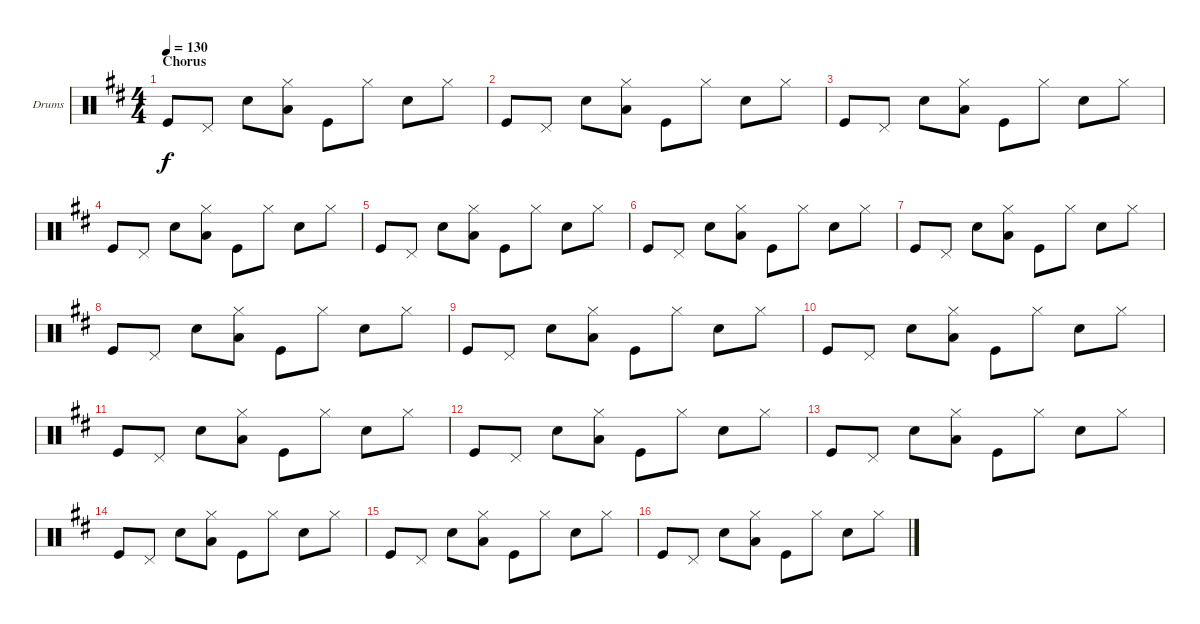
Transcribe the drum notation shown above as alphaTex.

\defaultSystemsLayout 4
\bracketExtendMode groupsimilarinstruments
\firstSystemTrackNameOrientation horizontal
\otherSystemsTrackNameOrientation horizontal
\track ("Drumkit" "Drums") {instrument percussion}
\staff {score}
\articulation defaults
\ts (4 4)
\section ("" "Chorus")
\tempo 130
\clef neutral
\scale
0.333333
\ks d "Kick (hit)".8{dy f} "Pedal Hi-Hat (hit)".8 "Snare (hit) 2".8
("Hi-Hat (closed)" "Low Tom (hit)").8 "Kick (hit)".8 "Hi-Hat (closed)".8 "Snare (hit) 2".8 "Hi-Hat (closed)".8 |
\scale
0.333333 "Kick (hit)".8 "Pedal Hi-Hat (hit)".8 "Snare (hit) 2".8 ("Hi-Hat (closed)" "Low Tom (hit)").8 "Kick (hit)".8 "Hi-Hat (closed)".8 "Snare (hit) 2".8 "Hi-Hat (closed)".8 |
\scale
0.333333 "Kick (hit)".8 "Pedal Hi-Hat (hit)".8 "Snare (hit) 2".8 ("Hi-Hat (closed)" "Low Tom (hit)").8 "Kick (hit)".8 "Hi-Hat (closed)".8 "Snare (hit) 2".8 "Hi-Hat (closed)".8 |
\scale
0.333333 "Kick (hit)".8 "Pedal Hi-Hat (hit)".8 "Snare (hit) 2".8 ("Hi-Hat (closed)" "Low Tom (hit)").8 "Kick (hit)".8 "Hi-Hat (closed)".8 "Snare (hit) 2".8 "Hi-Hat (closed)".8 |
\scale
0.333333 "Kick (hit)".8 "Pedal Hi-Hat (hit)".8 "Snare (hit) 2".8 ("Hi-Hat (closed)" "Low Tom (hit)").8 "Kick (hit)".8 "Hi-Hat (closed)".8 "Snare (hit) 2".8 "Hi-Hat (closed)".8 |
\scale
0.333333 "Kick (hit)".8 "Pedal Hi-Hat (hit)".8 "Snare (hit) 2".8 ("Hi-Hat (closed)" "Low Tom (hit)").8 "Kick (hit)".8 "Hi-Hat (closed)".8 "Snare (hit) 2".8 "Hi-Hat (closed)".8 |
\scale
0.333333 "Kick (hit)".8 "Pedal Hi-Hat (hit)".8 "Snare (hit) 2".8 ("Hi-Hat (closed)" "Low Tom (hit)").8 "Kick (hit)".8 "Hi-Hat (closed)".8 "Snare (hit) 2".8 "Hi-Hat (closed)".8 |
\scale
0.333333 "Kick (hit)".8 "Pedal Hi-Hat (hit)".8 "Snare (hit) 2".8 ("Hi-Hat (closed)" "Low Tom (hit)").8 "Kick (hit)".8 "Hi-Hat (closed)".8 "Snare (hit) 2".8 "Hi-Hat (closed)".8 |
\scale
0.333333 "Kick (hit)".8 "Pedal Hi-Hat (hit)".8 "Snare (hit) 2".8 ("Hi-Hat (closed)" "Low Tom (hit)").8 "Kick (hit)".8 "Hi-Hat (closed)".8 "Snare (hit) 2".8 "Hi-Hat (closed)".8 |
\scale
0.333333 "Kick (hit)".8 "Pedal Hi-Hat (hit)".8 "Snare (hit) 2".8 ("Hi-Hat (closed)" "Low Tom (hit)").8 "Kick (hit)".8 "Hi-Hat (closed)".8 "Snare (hit) 2".8 "Hi-Hat (closed)".8 |
\scale
0.333333 "Kick (hit)".8 "Pedal Hi-Hat (hit)".8 "Snare (hit) 2".8 ("Hi-Hat (closed)" "Low Tom (hit)").8 "Kick (hit)".8 "Hi-Hat (closed)".8 "Snare (hit) 2".8 "Hi-Hat (closed)".8 |
\scale
0.333333 "Kick (hit)".8 "Pedal Hi-Hat (hit)".8 "Snare (hit) 2".8 ("Hi-Hat (closed)" "Low Tom (hit)").8 "Kick (hit)".8 "Hi-Hat (closed)".8 "Snare (hit) 2".8 "Hi-Hat (closed)".8 |
\scale
0.333333 "Kick (hit)".8 "Pedal Hi-Hat (hit)".8 "Snare (hit) 2".8 ("Hi-Hat (closed)" "Low Tom (hit)").8 "Kick (hit)".8 "Hi-Hat (closed)".8 "Snare (hit) 2".8 "Hi-Hat (closed)".8 |
\scale
0.333333 "Kick (hit)".8 "Pedal Hi-Hat (hit)".8 "Snare (hit) 2".8 ("Hi-Hat (closed)" "Low Tom (hit)").8 "Kick (hit)".8 "Hi-Hat (closed)".8 "Snare (hit) 2".8 "Hi-Hat (closed)".8 |
\scale
0.333333 "Kick (hit)".8 "Pedal Hi-Hat (hit)".8 "Snare (hit) 2".8 ("Hi-Hat (closed)" "Low Tom (hit)").8 "Kick (hit)".8 "Hi-Hat (closed)".8 "Snare (hit) 2".8 "Hi-Hat (closed)".8 |
\scale
0.333333 "Kick (hit)".8 "Pedal Hi-Hat (hit)".8 "Snare (hit) 2".8 ("Hi-Hat (closed)" "Low Tom (hit)").8 "Kick (hit)".8 "Hi-Hat (closed)".8 "Snare (hit) 2".8 "Hi-Hat (closed)".8
